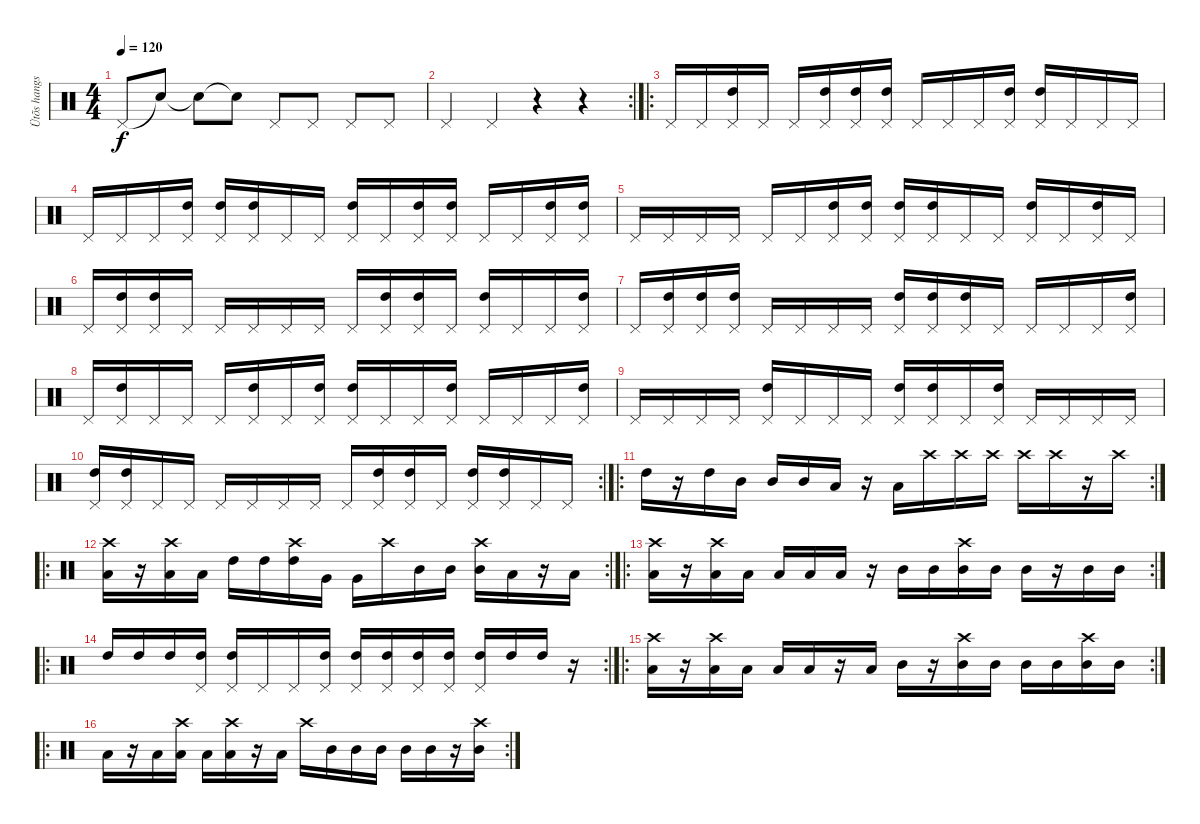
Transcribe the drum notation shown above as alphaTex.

\track ("Ütõs hangszer" "Ütõs hangs") {instrument percussion}
\staff {score}
\articulation defaults
\ts (4 4)
\tempo 120
\clef neutral
\ks c "Pedal Hi-Hat (hit)".8{dy f} "Snare (hit)"{t}.8 "Snare (hit)"{t}.8 "Snare (hit)"{t}.8 "Pedal Hi-Hat (hit)".8 "Pedal Hi-Hat (hit)".8 "Pedal Hi-Hat (hit)".8 "Pedal Hi-Hat (hit)".8
|
\rc 2 "Pedal Hi-Hat (hit)".4 "Pedal Hi-Hat (hit)".4
r.4 r.4 |
\ro "Pedal Hi-Hat (hit)".16 "Pedal Hi-Hat (hit)".16
("Pedal Hi-Hat (hit)" "High Tom (hit)").16 "Pedal Hi-Hat (hit)".16 "Pedal Hi-Hat (hit)".16 ("Pedal Hi-Hat (hit)" "High Tom (hit)").16 ("Pedal Hi-Hat (hit)" "High Tom (hit)").16 ("Pedal Hi-Hat (hit)" "High Tom (hit)").16 "Pedal Hi-Hat (hit)".16 "Pedal Hi-Hat (hit)".16 "Pedal Hi-Hat (hit)".16 ("Pedal Hi-Hat (hit)" "High Tom (hit)").16 ("Pedal Hi-Hat (hit)" "High Tom (hit)").16 "Pedal Hi-Hat (hit)".16 "Pedal Hi-Hat (hit)".16 "Pedal Hi-Hat (hit)".16 |
"Pedal Hi-Hat (hit)".16 "Pedal Hi-Hat (hit)".16 "Pedal Hi-Hat (hit)".16 ("Pedal Hi-Hat (hit)" "High Tom (hit)").16 ("Pedal Hi-Hat (hit)" "High Tom (hit)").16 ("Pedal Hi-Hat (hit)" "High Tom (hit)").16 "Pedal Hi-Hat (hit)".16 "Pedal Hi-Hat (hit)".16 ("Pedal Hi-Hat (hit)" "High Tom (hit)").16 "Pedal Hi-Hat (hit)".16 ("Pedal Hi-Hat (hit)" "High Tom (hit)").16 ("Pedal Hi-Hat (hit)" "High Tom (hit)").16 "Pedal Hi-Hat (hit)".16 "Pedal Hi-Hat (hit)".16 ("Pedal Hi-Hat (hit)" "High Tom (hit)").16 ("Pedal Hi-Hat (hit)" "High Tom (hit)").16 |
"Pedal Hi-Hat (hit)".16 "Pedal Hi-Hat (hit)".16 "Pedal Hi-Hat (hit)".16 "Pedal Hi-Hat (hit)".16 "Pedal Hi-Hat (hit)".16 "Pedal Hi-Hat (hit)".16 ("Pedal Hi-Hat (hit)" "High Tom (hit)").16 ("Pedal Hi-Hat (hit)" "High Tom (hit)").16 ("Pedal Hi-Hat (hit)" "High Tom (hit)").16 ("Pedal Hi-Hat (hit)" "High Tom (hit)").16 "Pedal Hi-Hat (hit)".16 "Pedal Hi-Hat (hit)".16 ("Pedal Hi-Hat (hit)" "High Tom (hit)").16 "Pedal Hi-Hat (hit)".16 ("Pedal Hi-Hat (hit)" "High Tom (hit)").16 "Pedal Hi-Hat (hit)".16 |
"Pedal Hi-Hat (hit)".16 ("Pedal Hi-Hat (hit)" "High Tom (hit)").16 ("Pedal Hi-Hat (hit)" "High Tom (hit)").16 "Pedal Hi-Hat (hit)".16 "Pedal Hi-Hat (hit)".16 "Pedal Hi-Hat (hit)".16 "Pedal Hi-Hat (hit)".16 "Pedal Hi-Hat (hit)".16 "Pedal Hi-Hat (hit)".16 ("Pedal Hi-Hat (hit)" "High Tom (hit)").16 ("Pedal Hi-Hat (hit)" "High Tom (hit)").16 "Pedal Hi-Hat (hit)".16 ("Pedal Hi-Hat (hit)" "High Tom (hit)").16 "Pedal Hi-Hat (hit)".16 "Pedal Hi-Hat (hit)".16 ("Pedal Hi-Hat (hit)" "High Tom (hit)").16 |
"Pedal Hi-Hat (hit)".16 ("Pedal Hi-Hat (hit)" "High Tom (hit)").16 ("Pedal Hi-Hat (hit)" "High Tom (hit)").16 ("Pedal Hi-Hat (hit)" "High Tom (hit)").16 "Pedal Hi-Hat (hit)".16 "Pedal Hi-Hat (hit)".16 "Pedal Hi-Hat (hit)".16 "Pedal Hi-Hat (hit)".16 ("Pedal Hi-Hat (hit)" "High Tom (hit)").16 ("Pedal Hi-Hat (hit)" "High Tom (hit)").16 ("Pedal Hi-Hat (hit)" "High Tom (hit)").16 "Pedal Hi-Hat (hit)".16 "Pedal Hi-Hat (hit)".16 "Pedal Hi-Hat (hit)".16 "Pedal Hi-Hat (hit)".16 ("Pedal Hi-Hat (hit)" "High Tom (hit)").16 |
"Pedal Hi-Hat (hit)".16 ("Pedal Hi-Hat (hit)" "High Tom (hit)").16 "Pedal Hi-Hat (hit)".16 "Pedal Hi-Hat (hit)".16 "Pedal Hi-Hat (hit)".16 ("Pedal Hi-Hat (hit)" "High Tom (hit)").16 "Pedal Hi-Hat (hit)".16 ("Pedal Hi-Hat (hit)" "High Tom (hit)").16 ("Pedal Hi-Hat (hit)" "High Tom (hit)").16 "Pedal Hi-Hat (hit)".16 "Pedal Hi-Hat (hit)".16 ("Pedal Hi-Hat (hit)" "High Tom (hit)").16 "Pedal Hi-Hat (hit)".16 "Pedal Hi-Hat (hit)".16 "Pedal Hi-Hat (hit)".16 ("Pedal Hi-Hat (hit)" "High Tom (hit)").16 |
"Pedal Hi-Hat (hit)".16 "Pedal Hi-Hat (hit)".16 "Pedal Hi-Hat (hit)".16 "Pedal Hi-Hat (hit)".16 ("Pedal Hi-Hat (hit)" "High Tom (hit)").16 "Pedal Hi-Hat (hit)".16 "Pedal Hi-Hat (hit)".16 "Pedal Hi-Hat (hit)".16 ("Pedal Hi-Hat (hit)" "High Tom (hit)").16 ("Pedal Hi-Hat (hit)" "High Tom (hit)").16 "Pedal Hi-Hat (hit)".16 ("Pedal Hi-Hat (hit)" "High Tom (hit)").16 "Pedal Hi-Hat (hit)".16 "Pedal Hi-Hat (hit)".16 "Pedal Hi-Hat (hit)".16 "Pedal Hi-Hat (hit)".16 |
\rc 2
("Pedal Hi-Hat (hit)" "High Tom (hit)").16 ("Pedal Hi-Hat (hit)" "High Tom (hit)").16 "Pedal Hi-Hat (hit)".16 "Pedal Hi-Hat (hit)".16 "Pedal Hi-Hat (hit)".16 "Pedal Hi-Hat (hit)".16 "Pedal Hi-Hat (hit)".16 "Pedal Hi-Hat (hit)".16 "Pedal Hi-Hat (hit)".16 ("Pedal Hi-Hat (hit)" "High Tom (hit)").16 ("Pedal Hi-Hat (hit)" "High Tom (hit)").16 "Pedal Hi-Hat (hit)".16 ("Pedal Hi-Hat (hit)" "High Tom (hit)").16 ("Pedal Hi-Hat (hit)" "High Tom (hit)").16 "Pedal Hi-Hat (hit)".16 "Pedal Hi-Hat (hit)".16 |
\ro
\rc 2 "High Tom (hit)".16
r.16 "High Tom (hit)".16 "Mid Tom (hit)".16 "Mid Tom (hit)".16 "Mid Tom (hit)".16 "Low Tom (hit)".16 r.16 "Low Tom (hit)".16 "Crash high (hit)".16 "Crash high (hit)".16 "Crash high (hit)".16 "Crash high (hit)".16 "Crash high (hit)".16 r.16 "Crash high (hit)".16 |
\ro
\rc 2
("Crash high (hit)" "Low Tom (hit)").16 r.16 ("Crash high (hit)" "Low Tom (hit)").16 "Low Tom (hit)".16 "High Tom (hit)".16 "High Tom (hit)".16 ("Crash high (hit)" "High Tom (hit)").16 "Very Low Tom (hit)".16 "Very Low Tom (hit)".16 "Crash high (hit)".16 "Mid Tom (hit)".16 "Mid Tom (hit)".16 ("Crash high (hit)" "Mid Tom (hit)").16 "Low Tom (hit)".16 r.16 "Low Tom (hit)".16 |
\ro
\rc 2
("Low Tom (hit)" "Crash high (hit)").16 r.16 ("Low Tom (hit)" "Crash high (hit)").16 "Low Tom (hit)".16 "Low Tom (hit)".16 "Low Tom (hit)".16 "Low Tom (hit)".16 r.16 "Mid Tom (hit)".16 "Mid Tom (hit)".16 ("Mid Tom (hit)" "Crash high (hit)").16 "Mid Tom (hit)".16 "Mid Tom (hit)".16 r.16 "Mid Tom (hit)".16 "Mid Tom (hit)".16 |
\ro
\rc 2 "High Tom (hit)".16 "High Tom (hit)".16 "High Tom (hit)".16
("High Tom (hit)" "Pedal Hi-Hat (hit)").16 ("High Tom (hit)" "Pedal Hi-Hat (hit)").16 "Pedal Hi-Hat (hit)".16 "Pedal Hi-Hat (hit)".16 ("High Tom (hit)" "Pedal Hi-Hat (hit)").16 ("High Tom (hit)" "Pedal Hi-Hat (hit)").16 ("High Tom (hit)" "Pedal Hi-Hat (hit)").16 ("High Tom (hit)" "Pedal Hi-Hat (hit)").16 ("High Tom (hit)" "Pedal Hi-Hat (hit)").16 ("High Tom (hit)" "Pedal Hi-Hat (hit)").16 "High Tom (hit)".16 "High Tom (hit)".16 r.16 |
\ro
\rc 2
("Low Tom (hit)" "Crash high (hit)").16 r.16 ("Low Tom (hit)" "Crash high (hit)").16 "Low Tom (hit)".16 "Low Tom (hit)".16 "Low Tom (hit)".16 r.16 "Low Tom (hit)".16 "Mid Tom (hit)".16 r.16 ("Mid Tom (hit)" "Crash high (hit)").16 "Mid Tom (hit)".16 "Mid Tom (hit)".16 "Mid Tom (hit)".16 ("Mid Tom (hit)" "Crash high (hit)").16 "Mid Tom (hit)".16 |
\ro
\rc 2 "Low Tom (hit)".16
r.16 "Low Tom (hit)".16 ("Low Tom (hit)" "Crash high (hit)").16 "Low Tom (hit)".16 ("Low Tom (hit)" "Crash high (hit)").16 r.16 "Low Tom (hit)".16 "Crash high (hit)".16 "Mid Tom (hit)".16 "Mid Tom (hit)".16 "Mid Tom (hit)".16 "Mid Tom (hit)".16 "Mid Tom (hit)".16 r.16 ("Mid Tom (hit)" "Crash high (hit)").16
